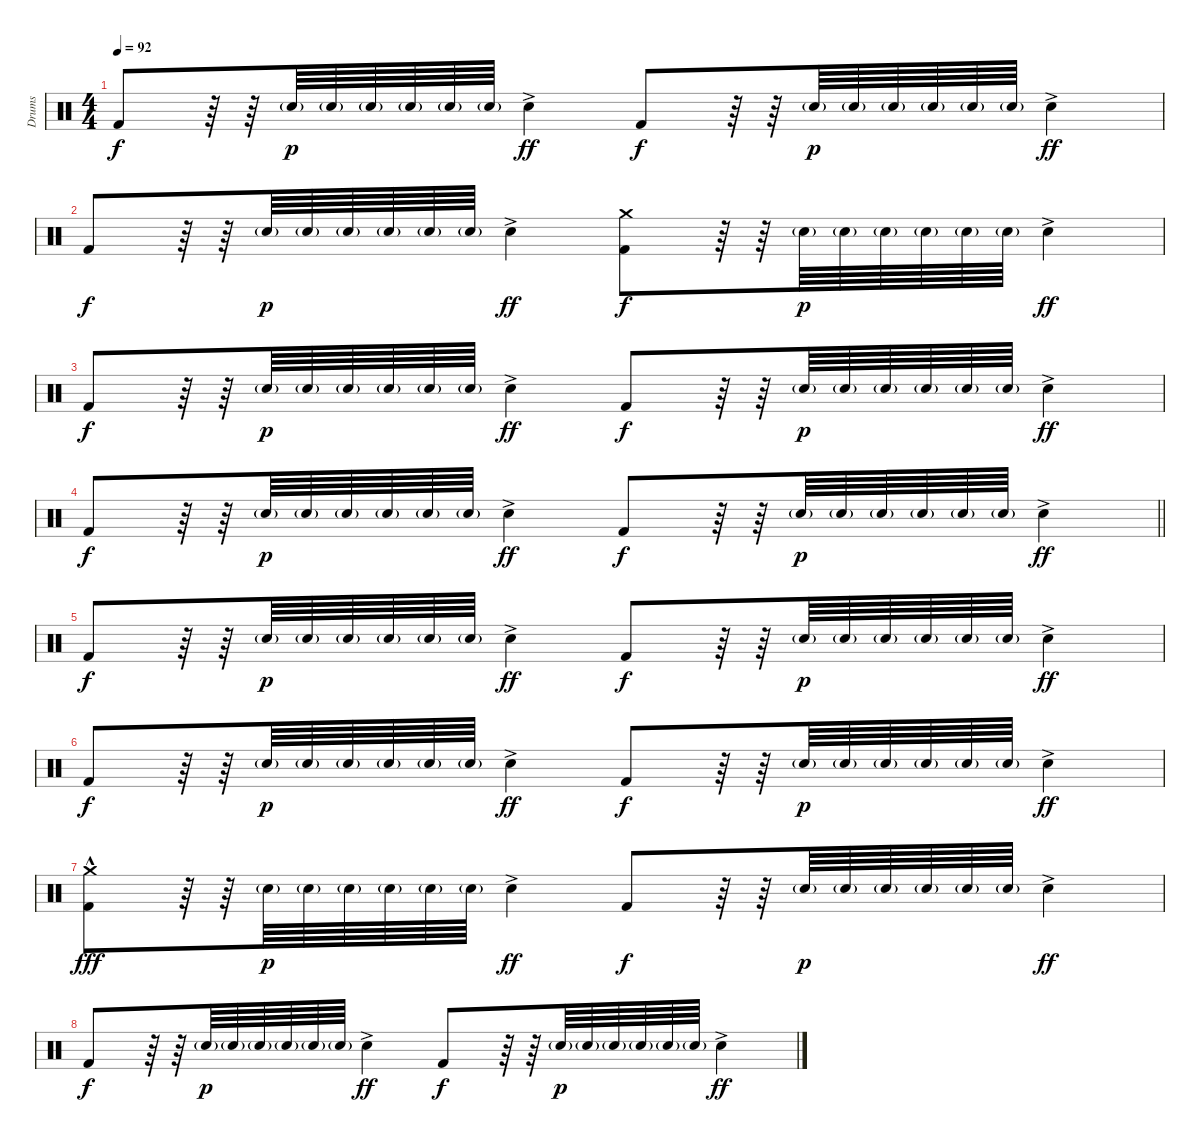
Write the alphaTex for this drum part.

\track ("Drums" "Drums") {instrument percussion}
\staff {score}
\articulation defaults
\ts (4 4)
\tempo 92
\clef neutral
\ks c "Kick (hit) 2".8{dy f}
r.64 r.64 "Snare (hit) 2"{g}.64{dy p} "Snare (hit) 2"{g}.64 "Snare (hit) 2"{g}.64 "Snare (hit) 2"{g}.64 "Snare (hit) 2"{g}.64 "Snare (hit) 2"{g}.64 "Snare (hit) 2"{ac}.4{dy ff} "Kick (hit) 2".8{dy f} r.64 r.64 "Snare (hit) 2"{g}.64{dy p} "Snare (hit) 2"{g}.64 "Snare (hit) 2"{g}.64 "Snare (hit) 2"{g}.64 "Snare (hit) 2"{g}.64 "Snare (hit) 2"{g}.64 "Snare (hit) 2"{ac}.4{dy ff} |
"Kick (hit) 2".8{dy f} r.64 r.64 "Snare (hit) 2"{g}.64{dy p} "Snare (hit) 2"{g}.64 "Snare (hit) 2"{g}.64 "Snare (hit) 2"{g}.64 "Snare (hit) 2"{g}.64 "Snare (hit) 2"{g}.64 "Snare (hit) 2"{ac}.4{dy ff} ("Crash medium (hit)" "Kick (hit) 2").8{dy f} r.64 r.64 "Snare (hit) 2"{g}.64{dy p} "Snare (hit) 2"{g}.64 "Snare (hit) 2"{g}.64 "Snare (hit) 2"{g}.64 "Snare (hit) 2"{g}.64 "Snare (hit) 2"{g}.64 "Snare (hit) 2"{ac}.4{dy ff} |
"Kick (hit) 2".8{dy f} r.64 r.64 "Snare (hit) 2"{g}.64{dy p} "Snare (hit) 2"{g}.64 "Snare (hit) 2"{g}.64 "Snare (hit) 2"{g}.64 "Snare (hit) 2"{g}.64 "Snare (hit) 2"{g}.64 "Snare (hit) 2"{ac}.4{dy ff} "Kick (hit) 2".8{dy f} r.64 r.64 "Snare (hit) 2"{g}.64{dy p} "Snare (hit) 2"{g}.64 "Snare (hit) 2"{g}.64 "Snare (hit) 2"{g}.64 "Snare (hit) 2"{g}.64 "Snare (hit) 2"{g}.64 "Snare (hit) 2"{ac}.4{dy ff} |
\barLineRight lightlight "Kick (hit) 2".8{dy f}
r.64 r.64 "Snare (hit) 2"{g}.64{dy p} "Snare (hit) 2"{g}.64 "Snare (hit) 2"{g}.64 "Snare (hit) 2"{g}.64 "Snare (hit) 2"{g}.64 "Snare (hit) 2"{g}.64 "Snare (hit) 2"{ac}.4{dy ff} "Kick (hit) 2".8{dy f} r.64 r.64 "Snare (hit) 2"{g}.64{dy p} "Snare (hit) 2"{g}.64 "Snare (hit) 2"{g}.64 "Snare (hit) 2"{g}.64 "Snare (hit) 2"{g}.64 "Snare (hit) 2"{g}.64 "Snare (hit) 2"{ac}.4{dy ff} |
"Kick (hit) 2".8{dy f} r.64 r.64 "Snare (hit) 2"{g}.64{dy p} "Snare (hit) 2"{g}.64 "Snare (hit) 2"{g}.64 "Snare (hit) 2"{g}.64 "Snare (hit) 2"{g}.64 "Snare (hit) 2"{g}.64 "Snare (hit) 2"{ac}.4{dy ff} "Kick (hit) 2".8{dy f} r.64 r.64 "Snare (hit) 2"{g}.64{dy p} "Snare (hit) 2"{g}.64 "Snare (hit) 2"{g}.64 "Snare (hit) 2"{g}.64 "Snare (hit) 2"{g}.64 "Snare (hit) 2"{g}.64 "Snare (hit) 2"{ac}.4{dy ff} |
"Kick (hit) 2".8{dy f} r.64 r.64 "Snare (hit) 2"{g}.64{dy p} "Snare (hit) 2"{g}.64 "Snare (hit) 2"{g}.64 "Snare (hit) 2"{g}.64 "Snare (hit) 2"{g}.64 "Snare (hit) 2"{g}.64 "Snare (hit) 2"{ac}.4{dy ff} "Kick (hit) 2".8{dy f} r.64 r.64 "Snare (hit) 2"{g}.64{dy p} "Snare (hit) 2"{g}.64 "Snare (hit) 2"{g}.64 "Snare (hit) 2"{g}.64 "Snare (hit) 2"{g}.64 "Snare (hit) 2"{g}.64 "Snare (hit) 2"{ac}.4{dy ff} |
("Crash medium (hit)"{hac} "Kick (hit) 2").8{dy fff} r.64 r.64 "Snare (hit) 2"{g}.64{dy p} "Snare (hit) 2"{g}.64 "Snare (hit) 2"{g}.64 "Snare (hit) 2"{g}.64 "Snare (hit) 2"{g}.64 "Snare (hit) 2"{g}.64 "Snare (hit) 2"{ac}.4{dy ff} "Kick (hit) 2".8{dy f} r.64 r.64 "Snare (hit) 2"{g}.64{dy p} "Snare (hit) 2"{g}.64 "Snare (hit) 2"{g}.64 "Snare (hit) 2"{g}.64 "Snare (hit) 2"{g}.64 "Snare (hit) 2"{g}.64 "Snare (hit) 2"{ac}.4{dy ff} |
"Kick (hit) 2".8{dy f} r.64 r.64 "Snare (hit) 2"{g}.64{dy p} "Snare (hit) 2"{g}.64 "Snare (hit) 2"{g}.64 "Snare (hit) 2"{g}.64 "Snare (hit) 2"{g}.64 "Snare (hit) 2"{g}.64 "Snare (hit) 2"{ac}.4{dy ff} "Kick (hit) 2".8{dy f} r.64 r.64 "Snare (hit) 2"{g}.64{dy p} "Snare (hit) 2"{g}.64 "Snare (hit) 2"{g}.64 "Snare (hit) 2"{g}.64 "Snare (hit) 2"{g}.64 "Snare (hit) 2"{g}.64 "Snare (hit) 2"{ac}.4{dy ff}
